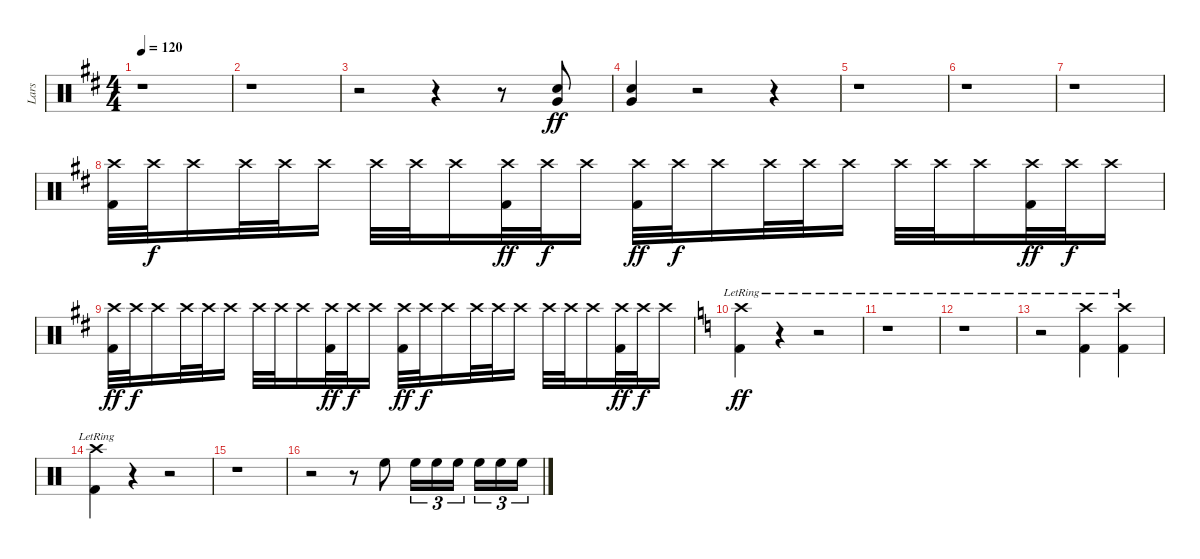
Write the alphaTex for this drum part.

\track ("Lars" "Lars") {instrument percussion}
\staff {score}
\articulation defaults
\ts (4 4)
\tempo 120
\clef neutral
\ks d
r.1{dy ff} |
r.1 |
r.2 r.4 r.8 ("Very Low Tom (hit)" "Snare (hit) 2").8 |
("Very Low Tom (hit)" "Snare (hit) 2").4 r.2 r.4 |
r.1 |
r.1 |
r.1{volume 5} |
("Crash high (hit)" "Kick (hit) 2").32{volume 14} "Crash high (hit)".32{dy f} "Crash high (hit)".16 "Crash high (hit)".32 "Crash high (hit)".32 "Crash high (hit)".16 "Crash high (hit)".32 "Crash high (hit)".32 "Crash high (hit)".16 ("Crash high (hit)" "Kick (hit) 2").32{dy ff} "Crash high (hit)".32{dy f} "Crash high (hit)".16 ("Crash high (hit)" "Kick (hit) 2").32{dy ff} "Crash high (hit)".32{dy f} "Crash high (hit)".16 "Crash high (hit)".32 "Crash high (hit)".32 "Crash high (hit)".16 "Crash high (hit)".32 "Crash high (hit)".32 "Crash high (hit)".16 ("Crash high (hit)" "Kick (hit) 2").32{dy ff} "Crash high (hit)".32{dy f} "Crash high (hit)".16 |
("Crash high (hit)" "Kick (hit) 2").32{dy ff} "Crash high (hit)".32{dy f} "Crash high (hit)".16 "Crash high (hit)".32 "Crash high (hit)".32 "Crash high (hit)".16 "Crash high (hit)".32 "Crash high (hit)".32 "Crash high (hit)".16 ("Crash high (hit)" "Kick (hit) 2").32{dy ff} "Crash high (hit)".32{dy f} "Crash high (hit)".16 ("Crash high (hit)" "Kick (hit) 2").32{dy ff} "Crash high (hit)".32{dy f} "Crash high (hit)".16 "Crash high (hit)".32 "Crash high (hit)".32 "Crash high (hit)".16 "Crash high (hit)".32 "Crash high (hit)".32 "Crash high (hit)".16 ("Crash high (hit)" "Kick (hit) 2").32{dy ff} "Crash high (hit)".32{dy f} "Crash high (hit)".16 |
\ks c
("Crash high (hit)"{lr} "Kick (hit) 2"{lr}).4{dy ff} r.4 r.2 |
r.1 |
r.1 |
r.2 ("Crash high (hit)"{lr} "Kick (hit) 2"{lr}).4 ("Crash high (hit)"{lr} "Kick (hit) 2"{lr}).4 |
("Crash high (hit)"{lr} "Kick (hit) 2"{lr}).4 r.4 r.2 |
r.1{volume 5} |
r.2 r.8{volume 15} "High Floor Tom (hit)".8 "High Floor Tom (hit)".16{tu (3 2)} "High Floor Tom (hit)".16{tu (3 2)} "High Floor Tom (hit)".16{tu (3 2) beam splitsecondary} "High Floor Tom (hit)".16{tu (3 2)} "High Floor Tom (hit)".16{tu (3 2)} "High Floor Tom (hit)".16{tu (3 2)}
